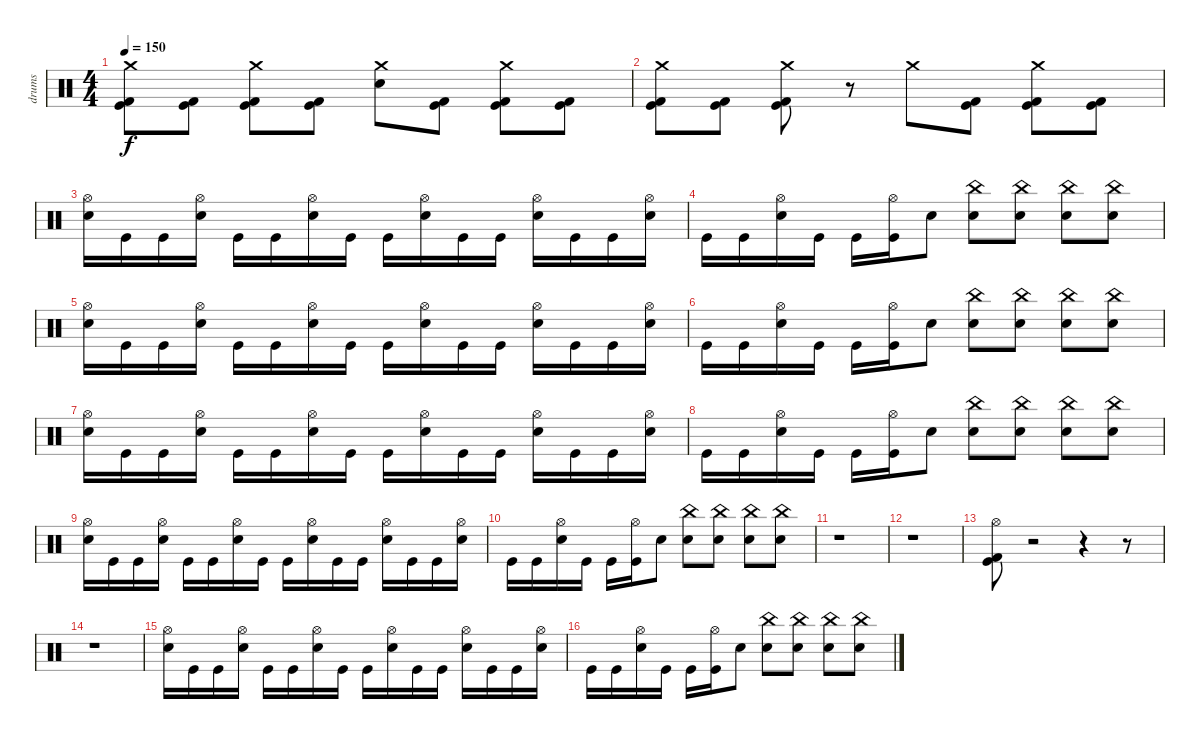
\track ("drums" "drums") {instrument percussion}
\staff {score}
\articulation defaults
\ts (4 4)
\tempo 150
\clef neutral
\ks c
("Kick (hit)" "Kick (hit) 2" "Crash medium (hit)").8{dy f} ("Kick (hit)" "Kick (hit) 2").8 ("Kick (hit)" "Kick (hit) 2" "Crash medium (hit)").8 ("Kick (hit)" "Kick (hit) 2").8 ("Electric Snare (hit)" "Crash medium (hit)").8 ("Kick (hit)" "Kick (hit) 2").8 ("Kick (hit)" "Kick (hit) 2" "Crash medium (hit)").8 ("Kick (hit)" "Kick (hit) 2").8 |
("Kick (hit)" "Kick (hit) 2" "Crash medium (hit)").8 ("Kick (hit) 2" "Kick (hit)").8 ("Kick (hit)" "Kick (hit) 2" "Crash medium (hit)").8 r.8 "Crash medium (hit)".8 ("Kick (hit)" "Kick (hit) 2").8 ("Kick (hit)" "Kick (hit) 2" "Crash medium (hit)").8 ("Kick (hit)" "Kick (hit) 2").8 |
("Electric Snare (hit)" "Hi-Hat (open)").16 "Kick (hit)".16 "Kick (hit)".16 ("Electric Snare (hit)" "Hi-Hat (open)").16 "Kick (hit)".16 "Kick (hit)".16 ("Electric Snare (hit)" "Hi-Hat (open)").16 "Kick (hit)".16 "Kick (hit)".16 ("Electric Snare (hit)" "Hi-Hat (open)").16 "Kick (hit)".16 "Kick (hit)".16 ("Electric Snare (hit)" "Hi-Hat (open)").16 "Kick (hit)".16 "Kick (hit)".16 ("Electric Snare (hit)" "Hi-Hat (open)").16 |
"Kick (hit)".16 "Kick (hit)".16 ("Electric Snare (hit)" "Hi-Hat (open)").16 "Kick (hit)".16 "Kick (hit)".16 ("Kick (hit)" "Hi-Hat (open)").16 "Electric Snare (hit)".8 ("Electric Snare (hit)" "China (hit)").8 ("Electric Snare (hit)" "China (hit)").8 ("Electric Snare (hit)" "China (hit)").8 ("Electric Snare (hit)" "China (hit)").8 |
("Electric Snare (hit)" "Hi-Hat (open)").16 "Kick (hit)".16 "Kick (hit)".16 ("Electric Snare (hit)" "Hi-Hat (open)").16 "Kick (hit)".16 "Kick (hit)".16 ("Electric Snare (hit)" "Hi-Hat (open)").16 "Kick (hit)".16 "Kick (hit)".16 ("Electric Snare (hit)" "Hi-Hat (open)").16 "Kick (hit)".16 "Kick (hit)".16 ("Electric Snare (hit)" "Hi-Hat (open)").16 "Kick (hit)".16 "Kick (hit)".16 ("Electric Snare (hit)" "Hi-Hat (open)").16 |
"Kick (hit)".16 "Kick (hit)".16 ("Electric Snare (hit)" "Hi-Hat (open)").16 "Kick (hit)".16 "Kick (hit)".16 ("Kick (hit)" "Hi-Hat (open)").16 "Electric Snare (hit)".8 ("Electric Snare (hit)" "China (hit)").8 ("Electric Snare (hit)" "China (hit)").8 ("Electric Snare (hit)" "China (hit)").8 ("Electric Snare (hit)" "China (hit)").8 |
("Electric Snare (hit)" "Hi-Hat (open)").16 "Kick (hit)".16 "Kick (hit)".16 ("Electric Snare (hit)" "Hi-Hat (open)").16 "Kick (hit)".16 "Kick (hit)".16 ("Electric Snare (hit)" "Hi-Hat (open)").16 "Kick (hit)".16 "Kick (hit)".16 ("Electric Snare (hit)" "Hi-Hat (open)").16 "Kick (hit)".16 "Kick (hit)".16 ("Electric Snare (hit)" "Hi-Hat (open)").16 "Kick (hit)".16 "Kick (hit)".16 ("Electric Snare (hit)" "Hi-Hat (open)").16 |
"Kick (hit)".16 "Kick (hit)".16 ("Electric Snare (hit)" "Hi-Hat (open)").16 "Kick (hit)".16 "Kick (hit)".16 ("Kick (hit)" "Hi-Hat (open)").16 "Electric Snare (hit)".8 ("Electric Snare (hit)" "China (hit)").8 ("Electric Snare (hit)" "China (hit)").8 ("Electric Snare (hit)" "China (hit)").8 ("Electric Snare (hit)" "China (hit)").8 |
("Electric Snare (hit)" "Hi-Hat (open)").16 "Kick (hit)".16 "Kick (hit)".16 ("Electric Snare (hit)" "Hi-Hat (open)").16 "Kick (hit)".16 "Kick (hit)".16 ("Electric Snare (hit)" "Hi-Hat (open)").16 "Kick (hit)".16 "Kick (hit)".16 ("Electric Snare (hit)" "Hi-Hat (open)").16 "Kick (hit)".16 "Kick (hit)".16 ("Electric Snare (hit)" "Hi-Hat (open)").16 "Kick (hit)".16 "Kick (hit)".16 ("Electric Snare (hit)" "Hi-Hat (open)").16 |
"Kick (hit)".16 "Kick (hit)".16 ("Electric Snare (hit)" "Hi-Hat (open)").16 "Kick (hit)".16 "Kick (hit)".16 ("Kick (hit)" "Hi-Hat (open)").16 "Electric Snare (hit)".8 ("Electric Snare (hit)" "China (hit)").8 ("Electric Snare (hit)" "China (hit)").8 ("Electric Snare (hit)" "China (hit)").8 ("Electric Snare (hit)" "China (hit)").8 |
r.1 |
r.1 |
("Kick (hit)" "Kick (hit) 2" "Hi-Hat (open)").8 r.2 r.4 r.8 |
r.1 |
("Electric Snare (hit)" "Hi-Hat (open)").16 "Kick (hit)".16 "Kick (hit)".16 ("Electric Snare (hit)" "Hi-Hat (open)").16 "Kick (hit)".16 "Kick (hit)".16 ("Electric Snare (hit)" "Hi-Hat (open)").16 "Kick (hit)".16 "Kick (hit)".16 ("Electric Snare (hit)" "Hi-Hat (open)").16 "Kick (hit)".16 "Kick (hit)".16 ("Electric Snare (hit)" "Hi-Hat (open)").16 "Kick (hit)".16 "Kick (hit)".16 ("Electric Snare (hit)" "Hi-Hat (open)").16 |
"Kick (hit)".16 "Kick (hit)".16 ("Electric Snare (hit)" "Hi-Hat (open)").16 "Kick (hit)".16 "Kick (hit)".16 ("Kick (hit)" "Hi-Hat (open)").16 "Electric Snare (hit)".8 ("Electric Snare (hit)" "China (hit)").8 ("Electric Snare (hit)" "China (hit)").8 ("Electric Snare (hit)" "China (hit)").8 ("Electric Snare (hit)" "China (hit)").8
